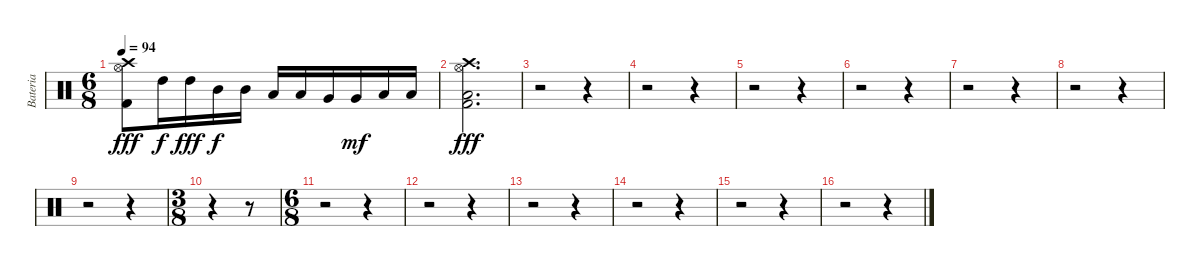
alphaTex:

\track ("Bateria" "Bateria") {instrument percussion}
\staff {score}
\articulation defaults
\ts (6 8)
\tempo 94
\clef neutral
\ks c
("Crash high (hit)" "Hi-Hat (open)" "Kick (hit) 2").8{dy fff} "High Tom (hit)".16{dy f} "High Tom (hit)".16{dy fff} "Mid Tom (hit)".16{dy f} "Mid Tom (hit)".16 "Low Tom (hit)".16 "Low Tom (hit)".16 "Very Low Tom (hit)".16 "Very Low Tom (hit)".16{dy mf} "Low Floor Tom (hit)".16 "Low Floor Tom (hit)".16 |
("Crash high (hit)" "Hi-Hat (open)" "Low Floor Tom (hit)" "Kick (hit) 2").2{d dy fff} |
r.2 r.4 |
r.2 r.4 |
r.2 r.4 |
r.2 r.4 |
r.2 r.4 |
r.2 r.4 |
r.2 r.4 |
\ts (3 8)
r.4 r.8 |
\ts (6 8)
r.2 r.4 |
r.2 r.4 |
r.2 r.4 |
r.2 r.4 |
r.2 r.4 |
r.2 r.4
